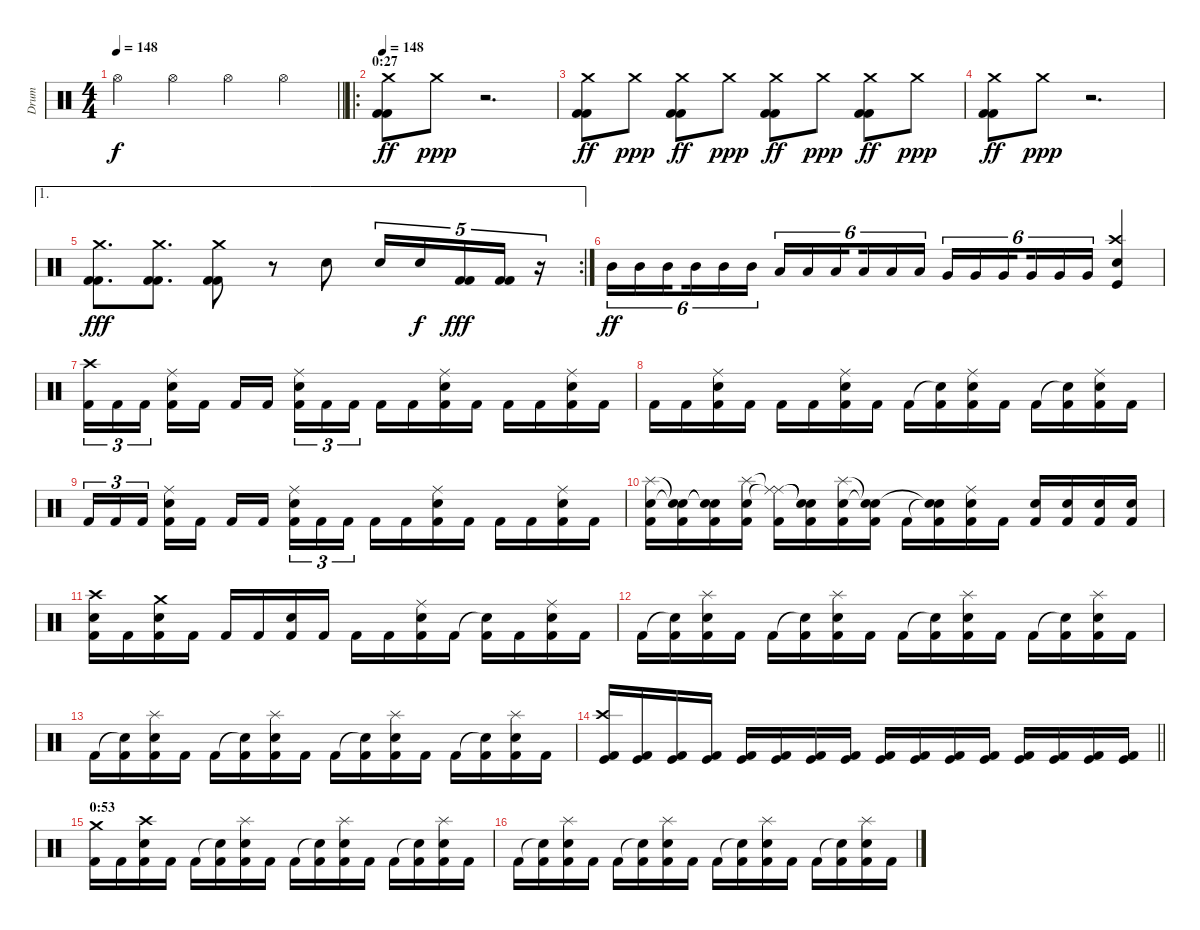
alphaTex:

\track ("Drum" "Drum") {instrument percussion}
\staff {score}
\articulation defaults
\ts (4 4)
\tempo 148
\clef neutral
\barLineRight lightlight
\ks c "Hi-Hat (open)".4{dy f} "Hi-Hat (open)".4 "Hi-Hat (open)".4 "Hi-Hat (open)".4
|
\ro
\section ("" "0:27")
\tempo 148
("Crash medium (hit)" "Kick (hit) 2" "Kick (hit) 2").8{dy ff} "Crash medium (hit)".8{dy ppp} r.2{d} |
("Crash medium (hit)" "Kick (hit) 2" "Kick (hit) 2").8{dy ff} "Crash medium (hit)".8{dy ppp} ("Crash medium (hit)" "Kick (hit) 2" "Kick (hit) 2").8{dy ff} "Crash medium (hit)".8{dy ppp} ("Crash medium (hit)" "Kick (hit) 2" "Kick (hit) 2").8{dy ff} "Crash medium (hit)".8{dy ppp} ("Crash medium (hit)" "Kick (hit) 2" "Kick (hit) 2").8{dy ff} "Crash medium (hit)".8{dy ppp} |
("Crash medium (hit)" "Kick (hit) 2" "Kick (hit) 2").8{dy ff} "Crash medium (hit)".8{dy ppp} r.2{d} |
\ae 1
\rc 2
("Crash medium (hit)" "Kick (hit) 2" "Kick (hit) 2").8{d dy fff} ("Crash medium (hit)" "Kick (hit) 2" "Kick (hit) 2").8{d} ("Crash medium (hit)" "Kick (hit) 2" "Kick (hit) 2").8 r.8 "Snare (hit) 2".8 "Snare (hit) 2".16{tu (5 4)} "Snare (hit) 2".16{tu (5 4) dy f} ("Kick (hit) 2" "Kick (hit) 2").16{tu (5 4) dy fff} ("Kick (hit) 2" "Kick (hit) 2").16{tu (5 4)} r.16{tu (5 4)} |
"Mid Tom (hit)".16{tu (6 4) dy ff} "Mid Tom (hit)".16{tu (6 4)} "Mid Tom (hit)".16{tu (6 4) beam splitsecondary} "Mid Tom (hit)".16{tu (6 4)} "Mid Tom (hit)".16{tu (6 4)} "Mid Tom (hit)".16{tu (6 4)} "Low Tom (hit)".16{tu (6 4)} "Low Tom (hit)".16{tu (6 4)} "Low Tom (hit)".16{tu (6 4) beam splitsecondary} "Low Tom (hit)".16{tu (6 4)} "Low Tom (hit)".16{tu (6 4)} "Low Tom (hit)".16{tu (6 4)} "Very Low Tom (hit)".16{tu (6 4)} "Very Low Tom (hit)".16{tu (6 4)} "Very Low Tom (hit)".16{tu (6 4) beam splitsecondary} "Very Low Tom (hit)".16{tu (6 4)} "Very Low Tom (hit)".16{tu (6 4)} "Very Low Tom (hit)".16{tu (6 4)} ("Crash high (hit)" "Snare (hit) 2" "Kick (hit)").4 |
("Crash high (hit)" "Kick (hit) 2").16{tu (3 2)} "Kick (hit) 2".16{tu (3 2)} "Kick (hit) 2".16{tu (3 2) beam splitsecondary} ("Ride (middle)" "Snare (hit) 2" "Kick (hit) 2").16 "Kick (hit) 2".16 "Kick (hit) 2".16 "Kick (hit) 2".16{beam splitsecondary} ("Ride (middle)" "Snare (hit) 2" "Kick (hit) 2").16{tu (3 2)} "Kick (hit) 2".16{tu (3 2)} "Kick (hit) 2".16{tu (3 2)} "Kick (hit) 2".16 "Kick (hit) 2".16 ("Ride (middle)" "Snare (hit) 2" "Kick (hit) 2").16 "Kick (hit) 2".16 "Kick (hit) 2".16 "Kick (hit) 2".16 ("Ride (middle)" "Snare (hit) 2" "Kick (hit) 2").16 "Kick (hit) 2".16 |
"Kick (hit) 2".16 "Kick (hit) 2".16 ("Ride (middle)" "Snare (hit) 2" "Kick (hit) 2").16 "Kick (hit) 2".16 "Kick (hit) 2".16 "Kick (hit) 2".16 ("Ride (middle)" "Snare (hit) 2" "Kick (hit) 2").16 "Kick (hit) 2".16 "Kick (hit) 2".16 ("Snare (hit)"{t} "Kick (hit) 2").16 ("Ride (middle)" "Snare (hit) 2" "Kick (hit) 2").16 "Kick (hit) 2".16 "Kick (hit) 2".16 ("Snare (hit)"{t} "Kick (hit) 2").16 ("Ride (middle)" "Snare (hit) 2" "Kick (hit) 2").16 "Kick (hit) 2".16 |
"Kick (hit) 2".16{tu (3 2)} "Kick (hit) 2".16{tu (3 2)} "Kick (hit) 2".16{tu (3 2) beam splitsecondary} ("Ride (middle)" "Snare (hit) 2" "Kick (hit) 2").16 "Kick (hit) 2".16 "Kick (hit) 2".16 "Kick (hit) 2".16{beam splitsecondary} ("Ride (middle)" "Snare (hit) 2" "Kick (hit) 2").16{tu (3 2)} "Kick (hit) 2".16{tu (3 2)} "Kick (hit) 2".16{tu (3 2)} "Kick (hit) 2".16 "Kick (hit) 2".16 ("Ride (middle)" "Snare (hit) 2" "Kick (hit) 2").16 "Kick (hit) 2".16 "Kick (hit) 2".16 "Kick (hit) 2".16 ("Ride (middle)" "Snare (hit) 2" "Kick (hit) 2").16 "Kick (hit) 2".16 |
("Snare (hit) 2" "Splash (hit)" "Kick (hit) 2").16 ("Snare (hit)"{t} "Snare (hit)"{t} "Kick (hit) 2").16 ("Snare (hit)"{t} "Snare (hit)"{t} "Kick (hit) 2").16 ("Snare (hit) 2" "Splash (hit)" "Kick (hit) 2").16 ("Ride (middle)"{t} "Ride (middle)"{t} "Kick (hit) 2").16 ("Snare (hit)"{t} "Snare (hit)"{t} "Kick (hit) 2").16 ("Snare (hit) 2" "Splash (hit)" "Kick (hit) 2").16 ("Snare (hit)"{t} "Snare (hit)"{t} "Kick (hit) 2").16 "Kick (hit) 2".16 ("Snare (hit)"{t} "Snare (hit)"{t} "Kick (hit) 2").16 ("Snare (hit) 2" "Ride (middle)" "Kick (hit) 2").16 "Kick (hit) 2".16 ("Snare (hit) 2" "Kick (hit) 2").16 ("Snare (hit) 2" "Kick (hit) 2").16 ("Snare (hit) 2" "Kick (hit) 2").16 ("Snare (hit) 2" "Kick (hit) 2").16 |
("Crash high (hit)" "Snare (hit) 2" "Kick (hit) 2").16 "Kick (hit) 2".16 ("Crash medium (hit)" "Snare (hit) 2" "Kick (hit) 2").16 "Kick (hit) 2".16 "Kick (hit) 2".16 "Kick (hit) 2".16 ("Snare (hit) 2" "Kick (hit) 2").16 "Kick (hit) 2".16 "Kick (hit) 2".16 "Kick (hit) 2".16 ("Ride (middle)" "Snare (hit) 2" "Kick (hit) 2").16 "Kick (hit) 2".16 ("Snare (hit)"{t} "Kick (hit) 2").16 "Kick (hit) 2".16 ("Ride (middle)" "Snare (hit) 2" "Kick (hit) 2").16 "Kick (hit) 2".16 |
"Kick (hit) 2".16 ("Snare (hit)"{t} "Kick (hit) 2").16 ("Splash (hit)" "Snare (hit) 2" "Kick (hit) 2").16 "Kick (hit) 2".16 "Kick (hit) 2".16 ("Snare (hit)"{t} "Kick (hit) 2").16 ("Splash (hit)" "Snare (hit) 2" "Kick (hit) 2").16 "Kick (hit) 2".16 "Kick (hit) 2".16 ("Snare (hit)"{t} "Kick (hit) 2").16 ("Splash (hit)" "Snare (hit) 2" "Kick (hit) 2").16 "Kick (hit) 2".16 "Kick (hit) 2".16 ("Snare (hit)"{t} "Kick (hit) 2").16 ("Splash (hit)" "Snare (hit) 2" "Kick (hit) 2").16 "Kick (hit) 2".16 |
"Kick (hit) 2".16 ("Snare (hit)"{t} "Kick (hit) 2").16 ("Splash (hit)" "Snare (hit) 2" "Kick (hit) 2").16 "Kick (hit) 2".16 "Kick (hit) 2".16 ("Snare (hit)"{t} "Kick (hit) 2").16 ("Splash (hit)" "Snare (hit) 2" "Kick (hit) 2").16 "Kick (hit) 2".16 "Kick (hit) 2".16 ("Snare (hit)"{t} "Kick (hit) 2").16 ("Splash (hit)" "Snare (hit) 2" "Kick (hit) 2").16 "Kick (hit) 2".16 "Kick (hit) 2".16 ("Snare (hit)"{t} "Kick (hit) 2").16 ("Splash (hit)" "Snare (hit) 2" "Kick (hit) 2").16 "Kick (hit) 2".16 |
\barLineRight lightlight
("Crash high (hit)" "Kick (hit)" "Kick (hit) 2").16 ("Kick (hit)" "Kick (hit) 2").16 ("Kick (hit)" "Kick (hit) 2").16 ("Kick (hit)" "Kick (hit) 2").16 ("Kick (hit)" "Kick (hit) 2").16 ("Kick (hit)" "Kick (hit) 2").16 ("Kick (hit)" "Kick (hit) 2").16 ("Kick (hit)" "Kick (hit) 2").16 ("Kick (hit)" "Kick (hit) 2").16 ("Kick (hit)" "Kick (hit) 2").16 ("Kick (hit)" "Kick (hit) 2").16 ("Kick (hit)" "Kick (hit) 2").16 ("Kick (hit)" "Kick (hit) 2").16 ("Kick (hit)" "Kick (hit) 2").16 ("Kick (hit)" "Kick (hit) 2").16 ("Kick (hit)" "Kick (hit) 2").16 |
\section ("" "0:53")
("Crash medium (hit)" "Kick (hit) 2").16 "Kick (hit) 2".16 ("Crash high (hit)" "Snare (hit) 2" "Kick (hit) 2").16 "Kick (hit) 2".16 "Kick (hit) 2".16 ("Snare (hit)"{t} "Kick (hit) 2").16 ("Splash (hit)" "Snare (hit) 2" "Kick (hit) 2").16 "Kick (hit) 2".16 "Kick (hit) 2".16 ("Snare (hit)"{t} "Kick (hit) 2").16 ("Splash (hit)" "Snare (hit) 2" "Kick (hit) 2").16 "Kick (hit) 2".16 "Kick (hit) 2".16 ("Snare (hit)"{t} "Kick (hit) 2").16 ("Splash (hit)" "Snare (hit) 2" "Kick (hit) 2").16 "Kick (hit) 2".16 |
"Kick (hit) 2".16 ("Snare (hit)"{t} "Kick (hit) 2").16 ("Splash (hit)" "Snare (hit) 2" "Kick (hit) 2").16 "Kick (hit) 2".16 "Kick (hit) 2".16 ("Snare (hit)"{t} "Kick (hit) 2").16 ("Splash (hit)" "Snare (hit) 2" "Kick (hit) 2").16 "Kick (hit) 2".16 "Kick (hit) 2".16 ("Snare (hit)"{t} "Kick (hit) 2").16 ("Splash (hit)" "Snare (hit) 2" "Kick (hit) 2").16 "Kick (hit) 2".16 "Kick (hit) 2".16 ("Snare (hit)"{t} "Kick (hit) 2").16 ("Splash (hit)" "Snare (hit) 2" "Kick (hit) 2").16 "Kick (hit) 2".16
